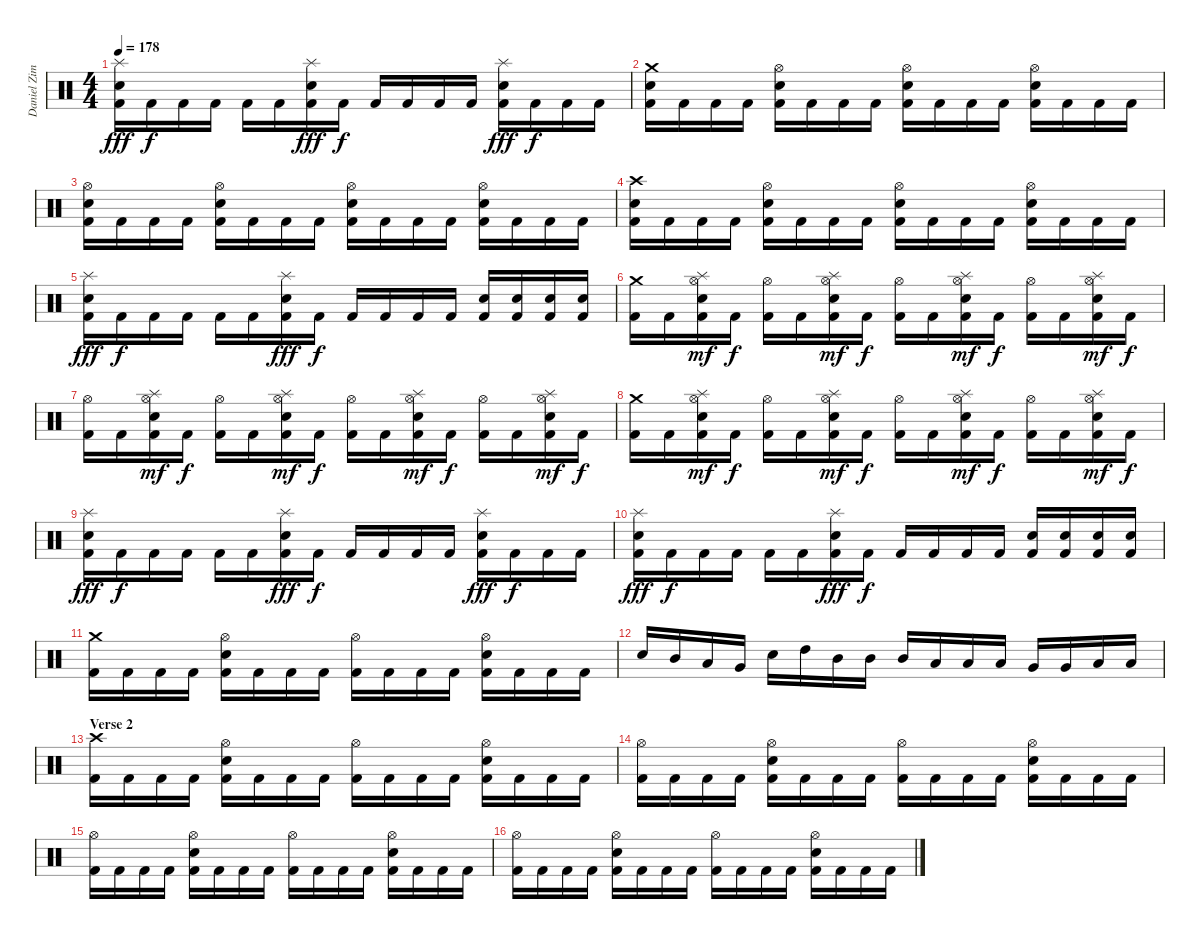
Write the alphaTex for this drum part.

\track ("Daniel Zimmermann" "Daniel Zim") {instrument percussion}
\staff {score}
\articulation defaults
\ts (4 4)
\tempo 178
\clef neutral
\ks c
("Kick (hit) 2" "Electric Snare (hit)" "Splash (hit)").16{dy fff} "Kick (hit) 2".16{dy f} "Kick (hit) 2".16 "Kick (hit) 2".16 "Kick (hit) 2".16 "Kick (hit) 2".16 ("Kick (hit) 2" "Electric Snare (hit)" "Splash (hit)").16{dy fff} "Kick (hit) 2".16{dy f} "Kick (hit) 2".16 "Kick (hit) 2".16 "Kick (hit) 2".16 "Kick (hit) 2".16 ("Kick (hit) 2" "Electric Snare (hit)" "Splash (hit)").16{dy fff} "Kick (hit) 2".16{dy f} "Kick (hit) 2".16 "Kick (hit) 2".16 |
("Kick (hit) 2" "Electric Snare (hit)" "Crash medium (hit)").16 "Kick (hit) 2".16 "Kick (hit) 2".16 "Kick (hit) 2".16 ("Kick (hit) 2" "Electric Snare (hit)" "Hi-Hat (open)").16 "Kick (hit) 2".16 "Kick (hit) 2".16 "Kick (hit) 2".16 ("Kick (hit) 2" "Electric Snare (hit)" "Hi-Hat (open)").16 "Kick (hit) 2".16 "Kick (hit) 2".16 "Kick (hit) 2".16 ("Kick (hit) 2" "Electric Snare (hit)" "Hi-Hat (open)").16 "Kick (hit) 2".16 "Kick (hit) 2".16 "Kick (hit) 2".16 |
("Kick (hit) 2" "Electric Snare (hit)" "Hi-Hat (open)").16 "Kick (hit) 2".16 "Kick (hit) 2".16 "Kick (hit) 2".16 ("Kick (hit) 2" "Electric Snare (hit)" "Hi-Hat (open)").16 "Kick (hit) 2".16 "Kick (hit) 2".16 "Kick (hit) 2".16 ("Kick (hit) 2" "Electric Snare (hit)" "Hi-Hat (open)").16 "Kick (hit) 2".16 "Kick (hit) 2".16 "Kick (hit) 2".16 ("Kick (hit) 2" "Electric Snare (hit)" "Hi-Hat (open)").16 "Kick (hit) 2".16 "Kick (hit) 2".16 "Kick (hit) 2".16 |
("Kick (hit) 2" "Electric Snare (hit)" "Crash high (hit)").16 "Kick (hit) 2".16 "Kick (hit) 2".16 "Kick (hit) 2".16 ("Kick (hit) 2" "Electric Snare (hit)" "Hi-Hat (open)").16 "Kick (hit) 2".16 "Kick (hit) 2".16 "Kick (hit) 2".16 ("Kick (hit) 2" "Electric Snare (hit)" "Hi-Hat (open)").16 "Kick (hit) 2".16 "Kick (hit) 2".16 "Kick (hit) 2".16 ("Kick (hit) 2" "Electric Snare (hit)" "Hi-Hat (open)").16 "Kick (hit) 2".16 "Kick (hit) 2".16 "Kick (hit) 2".16 |
("Kick (hit) 2" "Electric Snare (hit)" "Splash (hit)").16{dy fff} "Kick (hit) 2".16{dy f} "Kick (hit) 2".16 "Kick (hit) 2".16 "Kick (hit) 2".16 "Kick (hit) 2".16 ("Kick (hit) 2" "Electric Snare (hit)" "Splash (hit)").16{dy fff} "Kick (hit) 2".16{dy f} "Kick (hit) 2".16 "Kick (hit) 2".16 "Kick (hit) 2".16 "Kick (hit) 2".16 ("Kick (hit) 2" "Electric Snare (hit)").16 ("Kick (hit) 2" "Electric Snare (hit)").16 ("Kick (hit) 2" "Electric Snare (hit)").16 ("Kick (hit) 2" "Electric Snare (hit)").16 |
("Kick (hit) 2" "Crash medium (hit)").16 "Kick (hit) 2".16 ("Kick (hit) 2" "Electric Snare (hit)" "Hi-Hat (open)" "Splash (hit)").16{dy mf} "Kick (hit) 2".16{dy f} ("Kick (hit) 2" "Hi-Hat (open)").16 "Kick (hit) 2".16 ("Kick (hit) 2" "Electric Snare (hit)" "Hi-Hat (open)" "Splash (hit)").16{dy mf} "Kick (hit) 2".16{dy f} ("Kick (hit) 2" "Hi-Hat (open)").16 "Kick (hit) 2".16 ("Kick (hit) 2" "Electric Snare (hit)" "Hi-Hat (open)" "Splash (hit)").16{dy mf} "Kick (hit) 2".16{dy f} ("Kick (hit) 2" "Hi-Hat (open)").16 "Kick (hit) 2".16 ("Kick (hit) 2" "Electric Snare (hit)" "Hi-Hat (open)" "Splash (hit)").16{dy mf} "Kick (hit) 2".16{dy f} |
("Kick (hit) 2" "Hi-Hat (open)").16 "Kick (hit) 2".16 ("Kick (hit) 2" "Electric Snare (hit)" "Hi-Hat (open)" "Splash (hit)").16{dy mf} "Kick (hit) 2".16{dy f} ("Kick (hit) 2" "Hi-Hat (open)").16 "Kick (hit) 2".16 ("Kick (hit) 2" "Electric Snare (hit)" "Hi-Hat (open)" "Splash (hit)").16{dy mf} "Kick (hit) 2".16{dy f} ("Kick (hit) 2" "Hi-Hat (open)").16 "Kick (hit) 2".16 ("Kick (hit) 2" "Electric Snare (hit)" "Hi-Hat (open)" "Splash (hit)").16{dy mf} "Kick (hit) 2".16{dy f} ("Kick (hit) 2" "Hi-Hat (open)").16 "Kick (hit) 2".16 ("Kick (hit) 2" "Electric Snare (hit)" "Hi-Hat (open)" "Splash (hit)").16{dy mf} "Kick (hit) 2".16{dy f} |
("Kick (hit) 2" "Crash medium (hit)").16 "Kick (hit) 2".16 ("Kick (hit) 2" "Electric Snare (hit)" "Hi-Hat (open)" "Splash (hit)").16{dy mf} "Kick (hit) 2".16{dy f} ("Kick (hit) 2" "Hi-Hat (open)").16 "Kick (hit) 2".16 ("Kick (hit) 2" "Electric Snare (hit)" "Hi-Hat (open)" "Splash (hit)").16{dy mf} "Kick (hit) 2".16{dy f} ("Kick (hit) 2" "Hi-Hat (open)").16 "Kick (hit) 2".16 ("Kick (hit) 2" "Electric Snare (hit)" "Hi-Hat (open)" "Splash (hit)").16{dy mf} "Kick (hit) 2".16{dy f} ("Kick (hit) 2" "Hi-Hat (open)").16 "Kick (hit) 2".16 ("Kick (hit) 2" "Electric Snare (hit)" "Hi-Hat (open)" "Splash (hit)").16{dy mf} "Kick (hit) 2".16{dy f} |
("Kick (hit) 2" "Electric Snare (hit)" "Splash (hit)").16{dy fff} "Kick (hit) 2".16{dy f} "Kick (hit) 2".16 "Kick (hit) 2".16 "Kick (hit) 2".16 "Kick (hit) 2".16 ("Kick (hit) 2" "Electric Snare (hit)" "Splash (hit)").16{dy fff} "Kick (hit) 2".16{dy f} "Kick (hit) 2".16 "Kick (hit) 2".16 "Kick (hit) 2".16 "Kick (hit) 2".16 ("Kick (hit) 2" "Electric Snare (hit)" "Splash (hit)").16{dy fff} "Kick (hit) 2".16{dy f} "Kick (hit) 2".16 "Kick (hit) 2".16 |
("Kick (hit) 2" "Electric Snare (hit)" "Splash (hit)").16{dy fff} "Kick (hit) 2".16{dy f} "Kick (hit) 2".16 "Kick (hit) 2".16 "Kick (hit) 2".16 "Kick (hit) 2".16 ("Kick (hit) 2" "Electric Snare (hit)" "Splash (hit)").16{dy fff} "Kick (hit) 2".16{dy f} "Kick (hit) 2".16 "Kick (hit) 2".16 "Kick (hit) 2".16 "Kick (hit) 2".16 ("Kick (hit) 2" "Electric Snare (hit)").16 ("Kick (hit) 2" "Electric Snare (hit)").16 ("Kick (hit) 2" "Electric Snare (hit)").16 ("Kick (hit) 2" "Electric Snare (hit)").16 |
("Kick (hit) 2" "Crash medium (hit)").16 "Kick (hit) 2".16 "Kick (hit) 2".16 "Kick (hit) 2".16 ("Kick (hit) 2" "Electric Snare (hit)" "Hi-Hat (open)").16 "Kick (hit) 2".16 "Kick (hit) 2".16 "Kick (hit) 2".16 ("Kick (hit) 2" "Hi-Hat (open)").16 "Kick (hit) 2".16 "Kick (hit) 2".16 "Kick (hit) 2".16 ("Kick (hit) 2" "Electric Snare (hit)" "Hi-Hat (open)").16 "Kick (hit) 2".16 "Kick (hit) 2".16 "Kick (hit) 2".16 |
"Electric Snare (hit)".16 "Mid Tom (hit)".16 "Low Tom (hit)".16 "Very Low Tom (hit)".16 "Electric Snare (hit)".16 "High Tom (hit)".16 "Mid Tom (hit)".16 "Mid Tom (hit)".16 "Mid Tom (hit)".16 "Low Tom (hit)".16 "Low Tom (hit)".16 "Low Tom (hit)".16 "Very Low Tom (hit)".16 "Very Low Tom (hit)".16 "Low Floor Tom (hit)".16 "Low Floor Tom (hit)".16 |
\section ("" "Verse 2")
("Kick (hit) 2" "Crash high (hit)").16 "Kick (hit) 2".16 "Kick (hit) 2".16 "Kick (hit) 2".16 ("Kick (hit) 2" "Electric Snare (hit)" "Hi-Hat (open)").16 "Kick (hit) 2".16 "Kick (hit) 2".16 "Kick (hit) 2".16 ("Kick (hit) 2" "Hi-Hat (open)").16 "Kick (hit) 2".16 "Kick (hit) 2".16 "Kick (hit) 2".16 ("Kick (hit) 2" "Electric Snare (hit)" "Hi-Hat (open)").16 "Kick (hit) 2".16 "Kick (hit) 2".16 "Kick (hit) 2".16 |
("Kick (hit) 2" "Hi-Hat (open)").16 "Kick (hit) 2".16 "Kick (hit) 2".16 "Kick (hit) 2".16 ("Kick (hit) 2" "Electric Snare (hit)" "Hi-Hat (open)").16 "Kick (hit) 2".16 "Kick (hit) 2".16 "Kick (hit) 2".16 ("Kick (hit) 2" "Hi-Hat (open)").16 "Kick (hit) 2".16 "Kick (hit) 2".16 "Kick (hit) 2".16 ("Kick (hit) 2" "Electric Snare (hit)" "Hi-Hat (open)").16 "Kick (hit) 2".16 "Kick (hit) 2".16 "Kick (hit) 2".16 |
("Kick (hit) 2" "Hi-Hat (open)").16 "Kick (hit) 2".16 "Kick (hit) 2".16 "Kick (hit) 2".16 ("Kick (hit) 2" "Electric Snare (hit)" "Hi-Hat (open)").16 "Kick (hit) 2".16 "Kick (hit) 2".16 "Kick (hit) 2".16 ("Kick (hit) 2" "Hi-Hat (open)").16 "Kick (hit) 2".16 "Kick (hit) 2".16 "Kick (hit) 2".16 ("Kick (hit) 2" "Electric Snare (hit)" "Hi-Hat (open)").16 "Kick (hit) 2".16 "Kick (hit) 2".16 "Kick (hit) 2".16 |
("Kick (hit) 2" "Hi-Hat (open)").16 "Kick (hit) 2".16 "Kick (hit) 2".16 "Kick (hit) 2".16 ("Kick (hit) 2" "Electric Snare (hit)" "Hi-Hat (open)").16 "Kick (hit) 2".16 "Kick (hit) 2".16 "Kick (hit) 2".16 ("Kick (hit) 2" "Hi-Hat (open)").16 "Kick (hit) 2".16 "Kick (hit) 2".16 "Kick (hit) 2".16 ("Kick (hit) 2" "Electric Snare (hit)" "Hi-Hat (open)").16 "Kick (hit) 2".16 "Kick (hit) 2".16 "Kick (hit) 2".16
